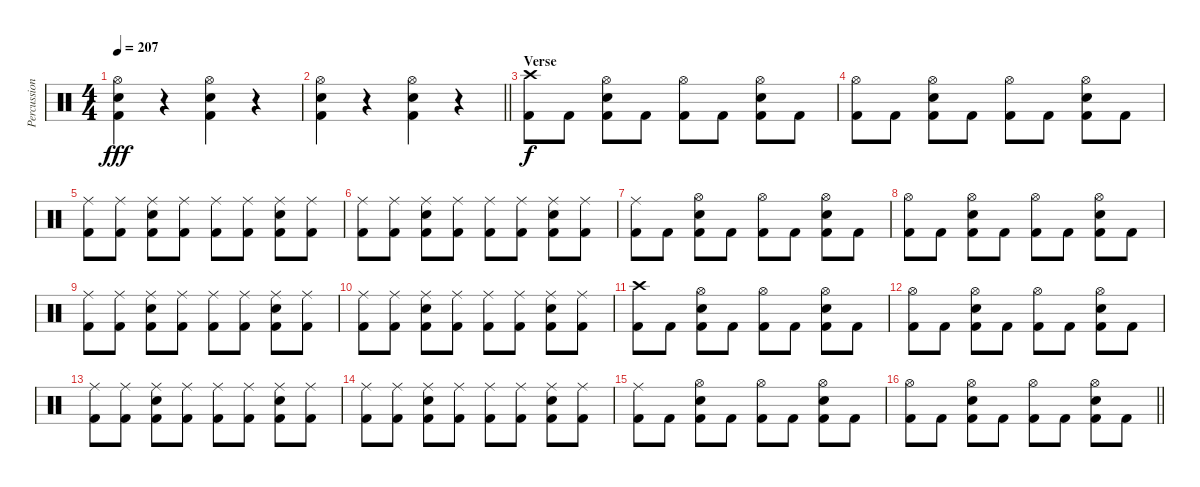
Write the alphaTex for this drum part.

\track ("Percussion" "Percussion") {instrument percussion}
\staff {score}
\articulation defaults
\ts (4 4)
\tempo 207
\clef neutral
\ks c
("Hi-Hat (open)" "Electric Snare (hit)" "Kick (hit) 2").4{dy fff} r.4 ("Hi-Hat (open)" "Electric Snare (hit)" "Kick (hit) 2").4 r.4 |
\barLineRight lightlight
("Hi-Hat (open)" "Electric Snare (hit)" "Kick (hit) 2").4 r.4 ("Hi-Hat (open)" "Electric Snare (hit)" "Kick (hit) 2").4 r.4 |
\section ("" "Verse")
("Crash high (hit)" "Kick (hit) 2").8{dy f} "Kick (hit) 2".8 ("Hi-Hat (open)" "Electric Snare (hit)" "Kick (hit) 2").8 "Kick (hit) 2".8 ("Hi-Hat (open)" "Kick (hit) 2").8 "Kick (hit) 2".8 ("Hi-Hat (open)" "Electric Snare (hit)" "Kick (hit) 2").8 "Kick (hit) 2".8 |
("Hi-Hat (open)" "Kick (hit) 2").8 "Kick (hit) 2".8 ("Hi-Hat (open)" "Electric Snare (hit)" "Kick (hit) 2").8 "Kick (hit) 2".8 ("Hi-Hat (open)" "Kick (hit) 2").8 "Kick (hit) 2".8 ("Hi-Hat (open)" "Electric Snare (hit)" "Kick (hit) 2").8 "Kick (hit) 2".8 |
("Ride (middle)" "Kick (hit) 2").8 ("Ride (middle)" "Kick (hit) 2").8 ("Ride (middle)" "Electric Snare (hit)" "Kick (hit) 2").8 ("Ride (middle)" "Kick (hit) 2").8 ("Ride (middle)" "Kick (hit) 2").8 ("Ride (middle)" "Kick (hit) 2").8 ("Ride (middle)" "Electric Snare (hit)" "Kick (hit) 2").8 ("Ride (middle)" "Kick (hit) 2").8 |
("Ride (middle)" "Kick (hit) 2").8 ("Ride (middle)" "Kick (hit) 2").8 ("Ride (middle)" "Electric Snare (hit)" "Kick (hit) 2").8 ("Ride (middle)" "Kick (hit) 2").8 ("Ride (middle)" "Kick (hit) 2").8 ("Ride (middle)" "Kick (hit) 2").8 ("Ride (middle)" "Electric Snare (hit)" "Kick (hit) 2").8 ("Ride (middle)" "Kick (hit) 2").8 |
("Ride (middle)" "Kick (hit) 2").8 "Kick (hit) 2".8 ("Hi-Hat (open)" "Electric Snare (hit)" "Kick (hit) 2").8 "Kick (hit) 2".8 ("Hi-Hat (open)" "Kick (hit) 2").8 "Kick (hit) 2".8 ("Hi-Hat (open)" "Electric Snare (hit)" "Kick (hit) 2").8 "Kick (hit) 2".8 |
("Hi-Hat (open)" "Kick (hit) 2").8 "Kick (hit) 2".8 ("Hi-Hat (open)" "Electric Snare (hit)" "Kick (hit) 2").8 "Kick (hit) 2".8 ("Hi-Hat (open)" "Kick (hit) 2").8 "Kick (hit) 2".8 ("Hi-Hat (open)" "Electric Snare (hit)" "Kick (hit) 2").8 "Kick (hit) 2".8 |
("Ride (middle)" "Kick (hit) 2").8 ("Ride (middle)" "Kick (hit) 2").8 ("Ride (middle)" "Electric Snare (hit)" "Kick (hit) 2").8 ("Ride (middle)" "Kick (hit) 2").8 ("Ride (middle)" "Kick (hit) 2").8 ("Ride (middle)" "Kick (hit) 2").8 ("Ride (middle)" "Electric Snare (hit)" "Kick (hit) 2").8 ("Ride (middle)" "Kick (hit) 2").8 |
("Ride (middle)" "Kick (hit) 2").8 ("Ride (middle)" "Kick (hit) 2").8 ("Ride (middle)" "Electric Snare (hit)" "Kick (hit) 2").8 ("Ride (middle)" "Kick (hit) 2").8 ("Ride (middle)" "Kick (hit) 2").8 ("Ride (middle)" "Kick (hit) 2").8 ("Ride (middle)" "Electric Snare (hit)" "Kick (hit) 2").8 ("Ride (middle)" "Kick (hit) 2").8 |
("Crash high (hit)" "Kick (hit) 2").8 "Kick (hit) 2".8 ("Hi-Hat (open)" "Electric Snare (hit)" "Kick (hit) 2").8 "Kick (hit) 2".8 ("Hi-Hat (open)" "Kick (hit) 2").8 "Kick (hit) 2".8 ("Hi-Hat (open)" "Electric Snare (hit)" "Kick (hit) 2").8 "Kick (hit) 2".8 |
("Hi-Hat (open)" "Kick (hit) 2").8 "Kick (hit) 2".8 ("Hi-Hat (open)" "Electric Snare (hit)" "Kick (hit) 2").8 "Kick (hit) 2".8 ("Hi-Hat (open)" "Kick (hit) 2").8 "Kick (hit) 2".8 ("Hi-Hat (open)" "Electric Snare (hit)" "Kick (hit) 2").8 "Kick (hit) 2".8 |
("Ride (middle)" "Kick (hit) 2").8 ("Ride (middle)" "Kick (hit) 2").8 ("Ride (middle)" "Electric Snare (hit)" "Kick (hit) 2").8 ("Ride (middle)" "Kick (hit) 2").8 ("Ride (middle)" "Kick (hit) 2").8 ("Ride (middle)" "Kick (hit) 2").8 ("Ride (middle)" "Electric Snare (hit)" "Kick (hit) 2").8 ("Ride (middle)" "Kick (hit) 2").8 |
("Ride (middle)" "Kick (hit) 2").8 ("Ride (middle)" "Kick (hit) 2").8 ("Ride (middle)" "Electric Snare (hit)" "Kick (hit) 2").8 ("Ride (middle)" "Kick (hit) 2").8 ("Ride (middle)" "Kick (hit) 2").8 ("Ride (middle)" "Kick (hit) 2").8 ("Ride (middle)" "Electric Snare (hit)" "Kick (hit) 2").8 ("Ride (middle)" "Kick (hit) 2").8 |
("Ride (middle)" "Kick (hit) 2").8 "Kick (hit) 2".8 ("Hi-Hat (open)" "Electric Snare (hit)" "Kick (hit) 2").8 "Kick (hit) 2".8 ("Hi-Hat (open)" "Kick (hit) 2").8 "Kick (hit) 2".8 ("Hi-Hat (open)" "Electric Snare (hit)" "Kick (hit) 2").8 "Kick (hit) 2".8 |
\barLineRight lightlight
("Hi-Hat (open)" "Kick (hit) 2").8 "Kick (hit) 2".8 ("Hi-Hat (open)" "Electric Snare (hit)" "Kick (hit) 2").8 "Kick (hit) 2".8 ("Hi-Hat (open)" "Kick (hit) 2").8 "Kick (hit) 2".8 ("Hi-Hat (open)" "Electric Snare (hit)" "Kick (hit) 2").8 "Kick (hit) 2".8
